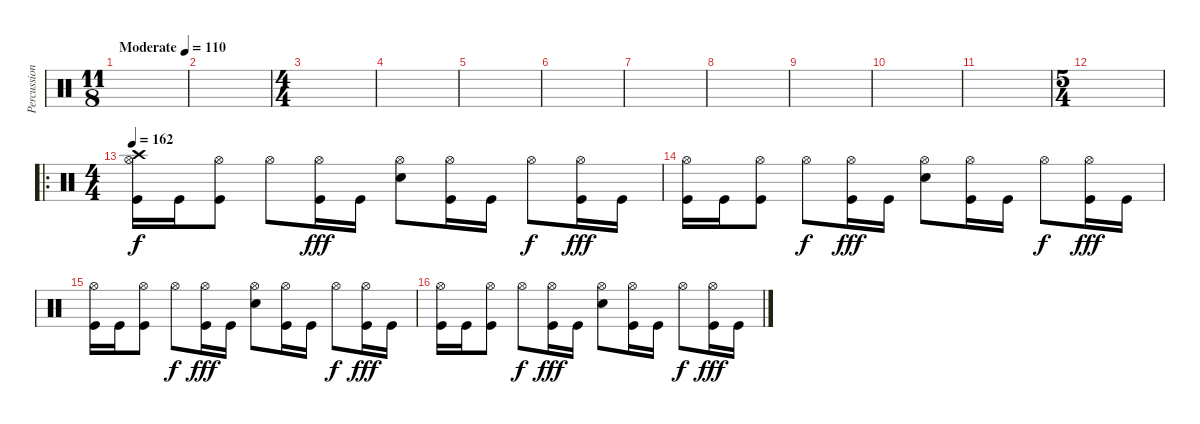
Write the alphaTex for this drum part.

\track ("Percussion" "Percussion") {instrument percussion}
\staff {score}
\articulation defaults
\ts (11 8)
\tempo (110 "Moderate")
\clef neutral
\ks c
|
|
\ts (4 4)
|
|
|
|
|
|
|
|
|
\ts (5 4)
|
\ro
\ts (4 4)
\tempo 162
("Crash high (hit)" "Hi-Hat (open)" "Kick (hit)").16 "Kick (hit)".16 ("Hi-Hat (open)" "Kick (hit)").8 "Hi-Hat (open)".8{dy f} ("Hi-Hat (open)" "Kick (hit)").16{dy fff} "Kick (hit)".16 ("Hi-Hat (open)" "Snare (hit) 2").8 ("Hi-Hat (open)" "Kick (hit)").16 "Kick (hit)".16 "Hi-Hat (open)".8{dy f} ("Hi-Hat (open)" "Kick (hit)").16{dy fff} "Kick (hit)".16 |
("Hi-Hat (open)" "Kick (hit)").16 "Kick (hit)".16 ("Hi-Hat (open)" "Kick (hit)").8 "Hi-Hat (open)".8{dy f} ("Hi-Hat (open)" "Kick (hit)").16{dy fff} "Kick (hit)".16 ("Hi-Hat (open)" "Snare (hit) 2").8 ("Hi-Hat (open)" "Kick (hit)").16 "Kick (hit)".16 "Hi-Hat (open)".8{dy f} ("Hi-Hat (open)" "Kick (hit)").16{dy fff} "Kick (hit)".16 |
("Hi-Hat (open)" "Kick (hit)").16 "Kick (hit)".16 ("Hi-Hat (open)" "Kick (hit)").8 "Hi-Hat (open)".8{dy f} ("Hi-Hat (open)" "Kick (hit)").16{dy fff} "Kick (hit)".16 ("Hi-Hat (open)" "Snare (hit) 2").8 ("Hi-Hat (open)" "Kick (hit)").16 "Kick (hit)".16 "Hi-Hat (open)".8{dy f} ("Hi-Hat (open)" "Kick (hit)").16{dy fff} "Kick (hit)".16 |
("Hi-Hat (open)" "Kick (hit)").16 "Kick (hit)".16 ("Hi-Hat (open)" "Kick (hit)").8 "Hi-Hat (open)".8{dy f} ("Hi-Hat (open)" "Kick (hit)").16{dy fff} "Kick (hit)".16 ("Hi-Hat (open)" "Snare (hit) 2").8 ("Hi-Hat (open)" "Kick (hit)").16 "Kick (hit)".16 "Hi-Hat (open)".8{dy f} ("Hi-Hat (open)" "Kick (hit)").16{dy fff} "Kick (hit)".16
